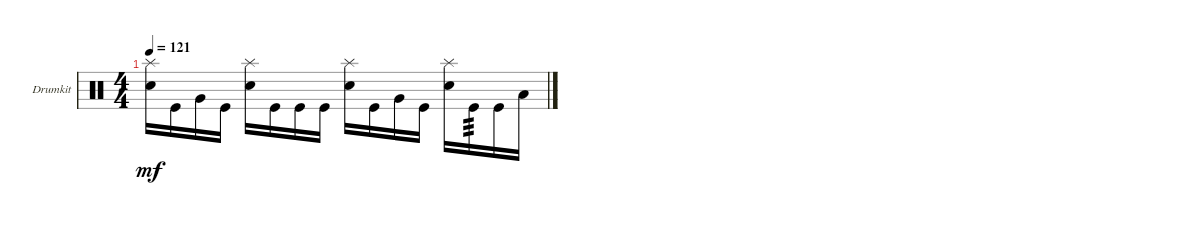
\defaultSystemsLayout 4
\bracketExtendMode groupsimilarinstruments
\firstSystemTrackNameOrientation horizontal
\otherSystemsTrackNameOrientation horizontal
\track ("Drumkit" "Drumkit") {instrument percussion}
\staff {score}
\articulation defaults
\ts (4 4)
\tempo 121
\clef neutral
\ks c
("Snare (hit) 2" "Splash (hit)").16{dy mf} "Kick (hit)".16 "Very Low Tom (hit)".16 "Kick (hit)".16 ("Snare (hit) 2" "Splash (hit)").16 "Kick (hit)".16 "Kick (hit)".16 "Kick (hit)".16 ("Snare (hit) 2" "Splash (hit)").16 "Kick (hit)".16 "Very Low Tom (hit)".16 "Kick (hit)".16 ("Snare (hit) 2" "Splash (hit)").16 "Kick (hit)".16{tp 3} "Kick (hit)".16 "Low Tom (hit)".16
